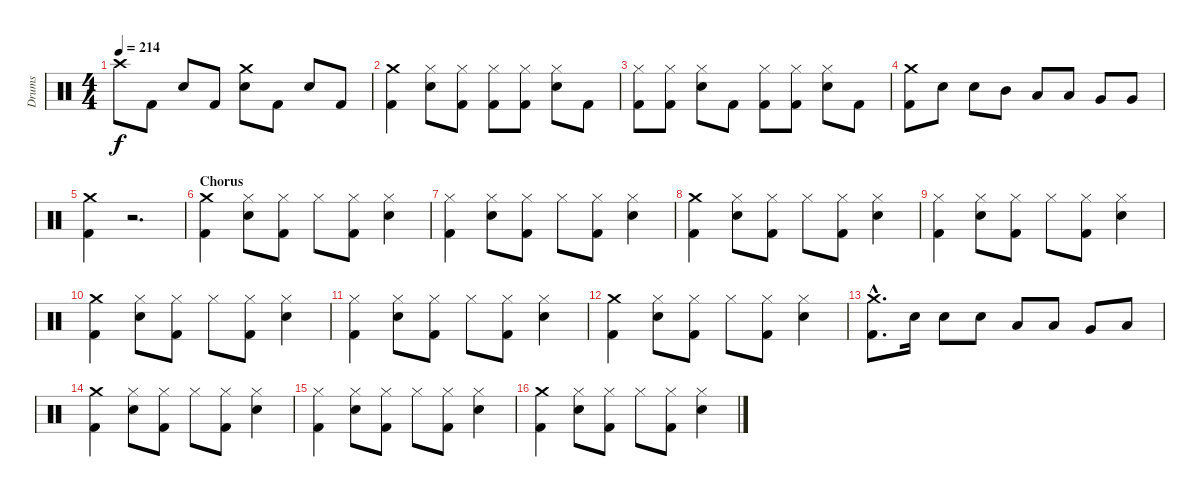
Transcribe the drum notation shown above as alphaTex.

\track ("Drums" "Drums") {instrument percussion}
\staff {score}
\articulation defaults
\ts (4 4)
\tempo 214
\clef neutral
\ks c "Crash high (hit)".8{dy f} "Kick (hit) 2".8 "Electric Snare (hit)".8 "Kick (hit) 2".8
("Crash medium (hit)" "Snare (hit)"{t}).8 "Kick (hit) 2".8 "Electric Snare (hit)".8 "Kick (hit) 2".8 |
("Crash medium (hit)" "Kick (hit) 2").4 ("Hi-Hat (closed)" "Electric Snare (hit)").8 ("Hi-Hat (closed)" "Kick (hit) 2").8 ("Hi-Hat (closed)" "Kick (hit) 2").8 ("Hi-Hat (closed)" "Kick (hit) 2").8 ("Hi-Hat (closed)" "Electric Snare (hit)").8 "Kick (hit) 2".8 |
("Hi-Hat (closed)" "Kick (hit) 2").8 ("Hi-Hat (closed)" "Kick (hit) 2").8 ("Hi-Hat (closed)" "Electric Snare (hit)").8 "Kick (hit) 2".8 ("Hi-Hat (closed)" "Kick (hit) 2").8 ("Hi-Hat (closed)" "Kick (hit) 2").8 ("Hi-Hat (closed)" "Electric Snare (hit)").8 "Kick (hit) 2".8 |
("Crash medium (hit)" "Kick (hit) 2").8 "Electric Snare (hit)".8 "Electric Snare (hit)".8 "Mid Tom (hit)".8 "Low Tom (hit)".8 "Low Tom (hit)".8 "Very Low Tom (hit)".8 "Very Low Tom (hit)".8 |
("Crash medium (hit)" "Kick (hit) 2").4 r.2{d} |
\section ("" "Chorus")
("Crash medium (hit)" "Kick (hit) 2").4 ("Hi-Hat (closed)" "Electric Snare (hit)").8 ("Hi-Hat (closed)" "Kick (hit) 2").8 "Hi-Hat (closed)".8 ("Hi-Hat (closed)" "Kick (hit) 2").8 ("Hi-Hat (closed)" "Electric Snare (hit)").4 |
("Hi-Hat (closed)" "Kick (hit) 2").4 ("Hi-Hat (closed)" "Electric Snare (hit)").8 ("Hi-Hat (closed)" "Kick (hit) 2").8 "Hi-Hat (closed)".8 ("Hi-Hat (closed)" "Kick (hit) 2").8 ("Hi-Hat (closed)" "Electric Snare (hit)").4 |
("Crash medium (hit)" "Kick (hit) 2").4 ("Hi-Hat (closed)" "Electric Snare (hit)").8 ("Hi-Hat (closed)" "Kick (hit) 2").8 "Hi-Hat (closed)".8 ("Hi-Hat (closed)" "Kick (hit) 2").8 ("Hi-Hat (closed)" "Electric Snare (hit)").4 |
("Hi-Hat (closed)" "Kick (hit) 2").4 ("Hi-Hat (closed)" "Electric Snare (hit)").8 ("Hi-Hat (closed)" "Kick (hit) 2").8 "Hi-Hat (closed)".8 ("Hi-Hat (closed)" "Kick (hit) 2").8 ("Hi-Hat (closed)" "Electric Snare (hit)").4 |
("Crash medium (hit)" "Kick (hit) 2").4 ("Hi-Hat (closed)" "Electric Snare (hit)").8 ("Hi-Hat (closed)" "Kick (hit) 2").8 "Hi-Hat (closed)".8 ("Hi-Hat (closed)" "Kick (hit) 2").8 ("Hi-Hat (closed)" "Electric Snare (hit)").4 |
("Hi-Hat (closed)" "Kick (hit) 2").4 ("Hi-Hat (closed)" "Electric Snare (hit)").8 ("Hi-Hat (closed)" "Kick (hit) 2").8 "Hi-Hat (closed)".8 ("Hi-Hat (closed)" "Kick (hit) 2").8 ("Hi-Hat (closed)" "Electric Snare (hit)").4 |
("Crash medium (hit)" "Kick (hit) 2").4 ("Hi-Hat (closed)" "Electric Snare (hit)").8 ("Hi-Hat (closed)" "Kick (hit) 2").8 "Hi-Hat (closed)".8 ("Hi-Hat (closed)" "Kick (hit) 2").8 ("Hi-Hat (closed)" "Electric Snare (hit)").4 |
("Crash medium (hit)"{hac} "Kick (hit) 2"{hac}).8{d} "Electric Snare (hit)".16 "Electric Snare (hit)".8 "Electric Snare (hit)".8 "Low Tom (hit)".8 "Low Tom (hit)".8 "Very Low Tom (hit)".8 "Low Floor Tom (hit)".8 |
("Crash medium (hit)" "Kick (hit) 2").4 ("Hi-Hat (closed)" "Electric Snare (hit)").8 ("Hi-Hat (closed)" "Kick (hit) 2").8 "Hi-Hat (closed)".8 ("Hi-Hat (closed)" "Kick (hit) 2").8 ("Hi-Hat (closed)" "Electric Snare (hit)").4 |
("Hi-Hat (closed)" "Kick (hit) 2").4 ("Hi-Hat (closed)" "Electric Snare (hit)").8 ("Hi-Hat (closed)" "Kick (hit) 2").8 "Hi-Hat (closed)".8 ("Hi-Hat (closed)" "Kick (hit) 2").8 ("Hi-Hat (closed)" "Electric Snare (hit)").4 |
("Crash medium (hit)" "Kick (hit) 2").4 ("Hi-Hat (closed)" "Electric Snare (hit)").8 ("Hi-Hat (closed)" "Kick (hit) 2").8 "Hi-Hat (closed)".8 ("Hi-Hat (closed)" "Kick (hit) 2").8 ("Hi-Hat (closed)" "Electric Snare (hit)").4
